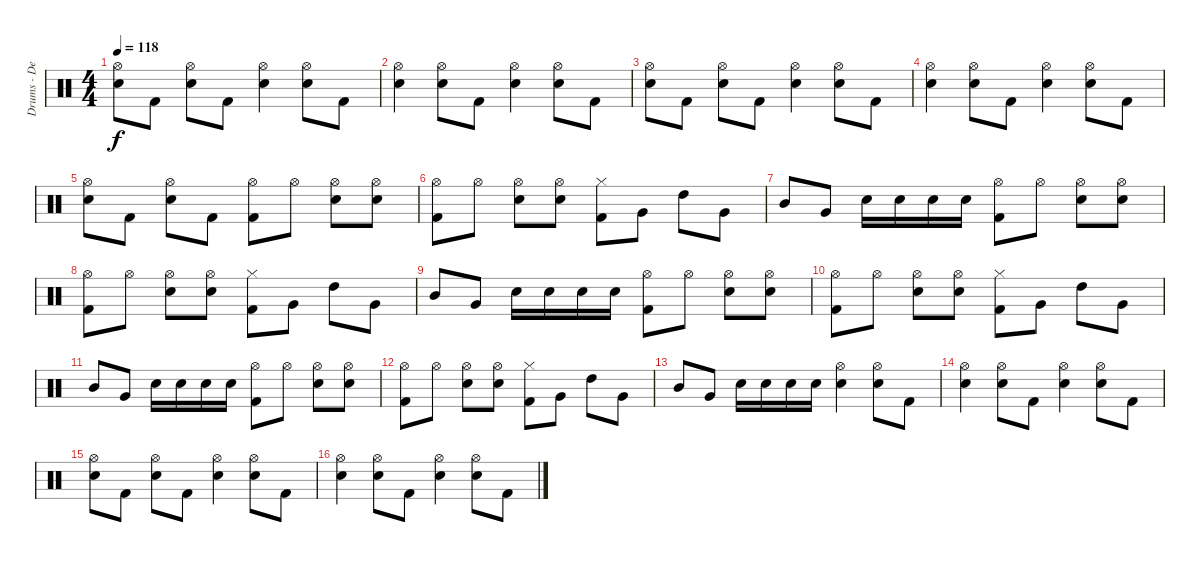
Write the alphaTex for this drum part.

\track ("Drums - Densmore" "Drums - De") {instrument percussion}
\staff {score}
\articulation defaults
\ts (4 4)
\tempo 118
\clef neutral
\ks c
("Hi-Hat (open)" "Electric Snare (hit)").8{dy f} "Kick (hit) 2".8 ("Hi-Hat (open)" "Electric Snare (hit)").8 "Kick (hit) 2".8 ("Hi-Hat (open)" "Electric Snare (hit)").4 ("Hi-Hat (open)" "Electric Snare (hit)").8 "Kick (hit) 2".8 |
("Hi-Hat (open)" "Electric Snare (hit)").4 ("Hi-Hat (open)" "Electric Snare (hit)").8 "Kick (hit) 2".8 ("Hi-Hat (open)" "Electric Snare (hit)").4 ("Hi-Hat (open)" "Electric Snare (hit)").8 "Kick (hit) 2".8 |
("Hi-Hat (open)" "Electric Snare (hit)").8 "Kick (hit) 2".8 ("Hi-Hat (open)" "Electric Snare (hit)").8 "Kick (hit) 2".8 ("Hi-Hat (open)" "Electric Snare (hit)").4 ("Hi-Hat (open)" "Electric Snare (hit)").8 "Kick (hit) 2".8 |
("Hi-Hat (open)" "Electric Snare (hit)").4 ("Hi-Hat (open)" "Electric Snare (hit)").8 "Kick (hit) 2".8 ("Hi-Hat (open)" "Electric Snare (hit)").4 ("Hi-Hat (open)" "Electric Snare (hit)").8 "Kick (hit) 2".8 |
("Hi-Hat (open)" "Electric Snare (hit)").8 "Kick (hit) 2".8 ("Hi-Hat (open)" "Electric Snare (hit)").8 "Kick (hit) 2".8 ("Hi-Hat (open)" "Kick (hit) 2").8 "Hi-Hat (open)".8 ("Hi-Hat (open)" "Electric Snare (hit)").8 ("Hi-Hat (open)" "Electric Snare (hit)").8 |
("Hi-Hat (open)" "Kick (hit) 2").8 "Hi-Hat (open)".8 ("Hi-Hat (open)" "Electric Snare (hit)").8 ("Hi-Hat (open)" "Electric Snare (hit)").8 ("Hi-Hat (closed)" "Kick (hit) 2").8 "Very Low Tom (hit)".8 "High Tom (hit)".8 "Very Low Tom (hit)".8 |
"Mid Tom (hit)".8 "Very Low Tom (hit)".8 "Electric Snare (hit)".16 "Electric Snare (hit)".16 "Electric Snare (hit)".16 "Electric Snare (hit)".16 ("Hi-Hat (open)" "Kick (hit) 2").8 "Hi-Hat (open)".8 ("Hi-Hat (open)" "Electric Snare (hit)").8 ("Hi-Hat (open)" "Electric Snare (hit)").8 |
("Hi-Hat (open)" "Kick (hit) 2").8 "Hi-Hat (open)".8 ("Hi-Hat (open)" "Electric Snare (hit)").8 ("Hi-Hat (open)" "Electric Snare (hit)").8 ("Hi-Hat (closed)" "Kick (hit) 2").8 "Very Low Tom (hit)".8 "High Tom (hit)".8 "Very Low Tom (hit)".8 |
"Mid Tom (hit)".8 "Very Low Tom (hit)".8 "Electric Snare (hit)".16 "Electric Snare (hit)".16 "Electric Snare (hit)".16 "Electric Snare (hit)".16 ("Hi-Hat (open)" "Kick (hit) 2").8 "Hi-Hat (open)".8 ("Hi-Hat (open)" "Electric Snare (hit)").8 ("Hi-Hat (open)" "Electric Snare (hit)").8 |
("Hi-Hat (open)" "Kick (hit) 2").8 "Hi-Hat (open)".8 ("Hi-Hat (open)" "Electric Snare (hit)").8 ("Hi-Hat (open)" "Electric Snare (hit)").8 ("Hi-Hat (closed)" "Kick (hit) 2").8 "Very Low Tom (hit)".8 "High Tom (hit)".8 "Very Low Tom (hit)".8 |
"Mid Tom (hit)".8 "Very Low Tom (hit)".8 "Electric Snare (hit)".16 "Electric Snare (hit)".16 "Electric Snare (hit)".16 "Electric Snare (hit)".16 ("Hi-Hat (open)" "Kick (hit) 2").8 "Hi-Hat (open)".8 ("Hi-Hat (open)" "Electric Snare (hit)").8 ("Hi-Hat (open)" "Electric Snare (hit)").8 |
("Hi-Hat (open)" "Kick (hit) 2").8 "Hi-Hat (open)".8 ("Hi-Hat (open)" "Electric Snare (hit)").8 ("Hi-Hat (open)" "Electric Snare (hit)").8 ("Hi-Hat (closed)" "Kick (hit) 2").8 "Very Low Tom (hit)".8 "High Tom (hit)".8 "Very Low Tom (hit)".8 |
"Mid Tom (hit)".8 "Very Low Tom (hit)".8 "Electric Snare (hit)".16 "Electric Snare (hit)".16 "Electric Snare (hit)".16 "Electric Snare (hit)".16 ("Hi-Hat (open)" "Electric Snare (hit)").4 ("Hi-Hat (open)" "Electric Snare (hit)").8 "Kick (hit) 2".8 |
("Hi-Hat (open)" "Electric Snare (hit)").4 ("Hi-Hat (open)" "Electric Snare (hit)").8 "Kick (hit) 2".8 ("Hi-Hat (open)" "Electric Snare (hit)").4 ("Hi-Hat (open)" "Electric Snare (hit)").8 "Kick (hit) 2".8 |
("Hi-Hat (open)" "Electric Snare (hit)").8 "Kick (hit) 2".8 ("Hi-Hat (open)" "Electric Snare (hit)").8 "Kick (hit) 2".8 ("Hi-Hat (open)" "Electric Snare (hit)").4 ("Hi-Hat (open)" "Electric Snare (hit)").8 "Kick (hit) 2".8 |
("Hi-Hat (open)" "Electric Snare (hit)").4 ("Hi-Hat (open)" "Electric Snare (hit)").8 "Kick (hit) 2".8 ("Hi-Hat (open)" "Electric Snare (hit)").4 ("Hi-Hat (open)" "Electric Snare (hit)").8 "Kick (hit) 2".8
